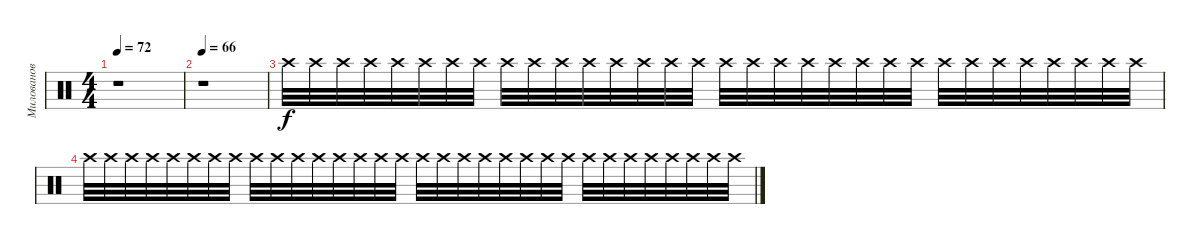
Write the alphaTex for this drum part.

\track ("Милованов" "Милованов") {instrument percussion}
\staff {score}
\articulation defaults
\ts (4 4)
\tempo 72
\clef neutral
\ks c
r.1{dy f} |
\tempo 66
r.1 |
"Crash high (hit)".32{volume 0} "Crash high (hit)".32 "Crash high (hit)".32{volume 6} "Crash high (hit)".32 "Crash high (hit)".32 "Crash high (hit)".32 "Crash high (hit)".32 "Crash high (hit)".32 "Crash high (hit)".32 "Crash high (hit)".32 "Crash high (hit)".32 "Crash high (hit)".32 "Crash high (hit)".32 "Crash high (hit)".32 "Crash high (hit)".32 "Crash high (hit)".32 "Crash high (hit)".32 "Crash high (hit)".32 "Crash high (hit)".32 "Crash high (hit)".32 "Crash high (hit)".32 "Crash high (hit)".32 "Crash high (hit)".32 "Crash high (hit)".32 "Crash high (hit)".32 "Crash high (hit)".32 "Crash high (hit)".32{volume 0} "Crash high (hit)".32 "Crash high (hit)".32 "Crash high (hit)".32 "Crash high (hit)".32 "Crash high (hit)".32 |
"Crash high (hit)".32 "Crash high (hit)".32 "Crash high (hit)".32 "Crash high (hit)".32 "Crash high (hit)".32 "Crash high (hit)".32 "Crash high (hit)".32 "Crash high (hit)".32 "Crash high (hit)".32 "Crash high (hit)".32 "Crash high (hit)".32 "Crash high (hit)".32 "Crash high (hit)".32 "Crash high (hit)".32 "Crash high (hit)".32 "Crash high (hit)".32 "Crash high (hit)".32 "Crash high (hit)".32 "Crash high (hit)".32 "Crash high (hit)".32 "Crash high (hit)".32 "Crash high (hit)".32 "Crash high (hit)".32 "Crash high (hit)".32 "Crash high (hit)".32 "Crash high (hit)".32 "Crash high (hit)".32 "Crash high (hit)".32 "Crash high (hit)".32 "Crash high (hit)".32 "Crash high (hit)".32 "Crash high (hit)".32
